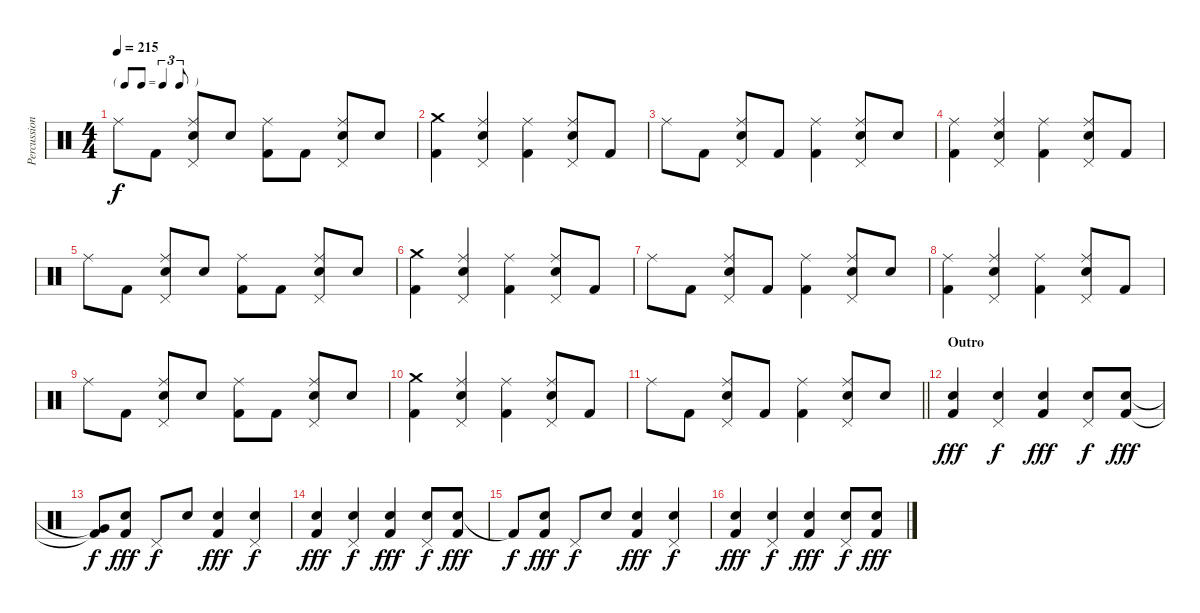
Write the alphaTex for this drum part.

\track ("Percussion" "Percussion") {instrument percussion}
\staff {score}
\articulation defaults
\ts (4 4)
\tf triplet8th
\tempo 215
\clef neutral
\ks c "Ride (middle)".8{dy f} "Kick (hit) 2".8
("Ride (middle)" "Snare (hit) 2" "Pedal Hi-Hat (hit)").8 "Snare (hit) 2".8 ("Ride (middle)" "Kick (hit) 2").8 "Kick (hit) 2".8 ("Ride (middle)" "Snare (hit) 2" "Pedal Hi-Hat (hit)").8 "Snare (hit) 2".8 |
("Crash medium (hit)" "Kick (hit) 2").4 ("Ride (middle)" "Snare (hit) 2" "Pedal Hi-Hat (hit)").4 ("Ride (middle)" "Kick (hit) 2").4 ("Ride (middle)" "Snare (hit) 2" "Pedal Hi-Hat (hit)").8 "Kick (hit) 2".8 |
"Ride (middle)".8 "Kick (hit) 2".8 ("Ride (middle)" "Snare (hit) 2" "Pedal Hi-Hat (hit)").8 "Kick (hit) 2".8 ("Ride (middle)" "Kick (hit) 2").4 ("Ride (middle)" "Snare (hit) 2" "Pedal Hi-Hat (hit)").8 "Snare (hit) 2".8 |
("Ride (middle)" "Kick (hit) 2").4 ("Ride (middle)" "Snare (hit) 2" "Pedal Hi-Hat (hit)").4 ("Ride (middle)" "Kick (hit) 2").4 ("Ride (middle)" "Snare (hit) 2" "Pedal Hi-Hat (hit)").8 "Kick (hit) 2".8 |
"Ride (middle)".8 "Kick (hit) 2".8 ("Ride (middle)" "Snare (hit) 2" "Pedal Hi-Hat (hit)").8 "Snare (hit) 2".8 ("Ride (middle)" "Kick (hit) 2").8 "Kick (hit) 2".8 ("Ride (middle)" "Snare (hit) 2" "Pedal Hi-Hat (hit)").8 "Snare (hit) 2".8 |
("Crash medium (hit)" "Kick (hit) 2").4 ("Ride (middle)" "Snare (hit) 2" "Pedal Hi-Hat (hit)").4 ("Ride (middle)" "Kick (hit) 2").4 ("Ride (middle)" "Snare (hit) 2" "Pedal Hi-Hat (hit)").8 "Kick (hit) 2".8 |
"Ride (middle)".8 "Kick (hit) 2".8 ("Ride (middle)" "Snare (hit) 2" "Pedal Hi-Hat (hit)").8 "Kick (hit) 2".8 ("Ride (middle)" "Kick (hit) 2").4 ("Ride (middle)" "Snare (hit) 2" "Pedal Hi-Hat (hit)").8 "Snare (hit) 2".8 |
("Ride (middle)" "Kick (hit) 2").4 ("Ride (middle)" "Snare (hit) 2" "Pedal Hi-Hat (hit)").4 ("Ride (middle)" "Kick (hit) 2").4 ("Ride (middle)" "Snare (hit) 2" "Pedal Hi-Hat (hit)").8 "Kick (hit) 2".8 |
"Ride (middle)".8 "Kick (hit) 2".8 ("Ride (middle)" "Snare (hit) 2" "Pedal Hi-Hat (hit)").8 "Snare (hit) 2".8 ("Ride (middle)" "Kick (hit) 2").8 "Kick (hit) 2".8 ("Ride (middle)" "Snare (hit) 2" "Pedal Hi-Hat (hit)").8 "Snare (hit) 2".8 |
("Crash medium (hit)" "Kick (hit) 2").4 ("Ride (middle)" "Snare (hit) 2" "Pedal Hi-Hat (hit)").4 ("Ride (middle)" "Kick (hit) 2").4 ("Ride (middle)" "Snare (hit) 2" "Pedal Hi-Hat (hit)").8 "Kick (hit) 2".8 |
\barLineRight lightlight "Ride (middle)".8 "Kick (hit) 2".8
("Ride (middle)" "Snare (hit) 2" "Pedal Hi-Hat (hit)").8 "Kick (hit) 2".8 ("Ride (middle)" "Kick (hit) 2").4 ("Ride (middle)" "Snare (hit) 2" "Pedal Hi-Hat (hit)").8 "Snare (hit) 2".8 |
\section ("" "Outro")
("Snare (hit) 2" "Kick (hit) 2").4{dy fff} ("Snare (hit) 2" "Pedal Hi-Hat (hit)").4{dy f} ("Snare (hit) 2" "Kick (hit) 2").4{dy fff} ("Snare (hit) 2" "Pedal Hi-Hat (hit)").8{dy f} ("Snare (hit) 2" "Kick (hit) 2").8{dy fff} |
("Very Low Tom (hit)"{t} "Kick (hit) 2"{t}).8{dy f} ("Snare (hit) 2" "Kick (hit) 2").8{dy fff} "Pedal Hi-Hat (hit)".8{dy f} "Snare (hit) 2".8 ("Snare (hit) 2" "Kick (hit) 2").4{dy fff} ("Snare (hit) 2" "Pedal Hi-Hat (hit)").4{dy f} |
("Snare (hit) 2" "Kick (hit) 2").4{dy fff} ("Snare (hit) 2" "Pedal Hi-Hat (hit)").4{dy f} ("Snare (hit) 2" "Kick (hit) 2").4{dy fff} ("Snare (hit) 2" "Pedal Hi-Hat (hit)").8{dy f} ("Snare (hit) 2" "Kick (hit) 2").8{dy fff} |
"Kick (hit) 2"{t}.8{dy f} ("Snare (hit) 2" "Kick (hit) 2").8{dy fff} "Pedal Hi-Hat (hit)".8{dy f} "Snare (hit) 2".8 ("Snare (hit) 2" "Kick (hit) 2").4{dy fff} ("Snare (hit) 2" "Pedal Hi-Hat (hit)").4{dy f} |
("Snare (hit) 2" "Kick (hit) 2").4{dy fff} ("Snare (hit) 2" "Pedal Hi-Hat (hit)").4{dy f} ("Snare (hit) 2" "Kick (hit) 2").4{dy fff} ("Snare (hit) 2" "Pedal Hi-Hat (hit)").8{dy f} ("Snare (hit) 2" "Kick (hit) 2").8{dy fff}
